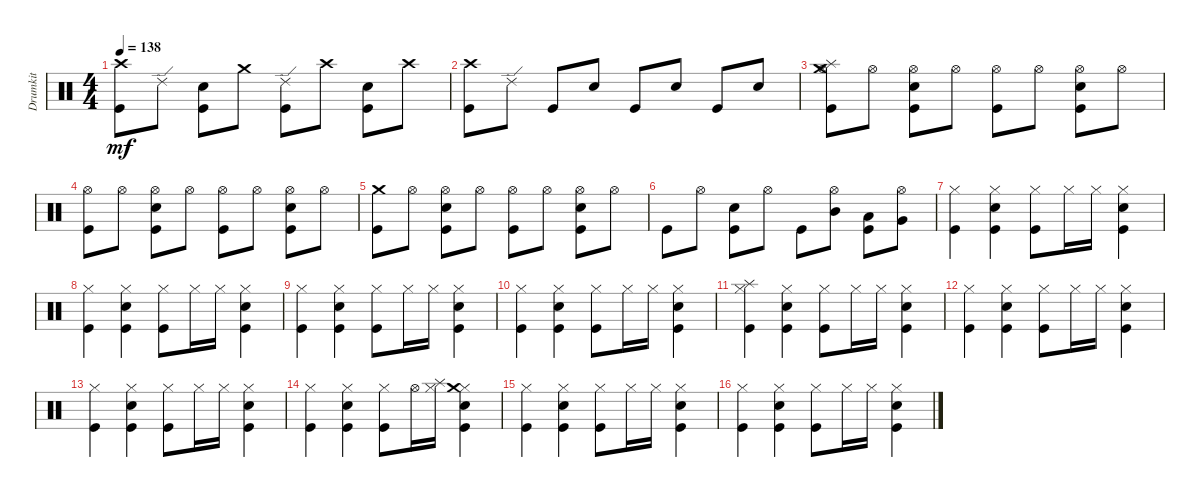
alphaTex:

\track ("Drumkit" "Drumkit") {instrument percussion}
\staff {score}
\articulation defaults
\ts (4 4)
\tempo 138
\clef neutral
\ks c
("Crash high (hit)" "Kick (hit)").8{dy mf} "Ride (edge) 2".8 ("Snare (hit) 2" "Kick (hit)").8 "Crash medium (hit)".8 ("Ride (edge) 2" "Kick (hit)").8 "Crash high (hit)".8 ("Snare (hit) 2" "Kick (hit)").8 "Crash high (hit)".8 |
("Crash high (hit)" "Kick (hit)").8 "Ride (edge) 2".8 "Kick (hit)".8 "Snare (hit) 2".8 "Kick (hit)".8 "Snare (hit) 2".8 "Kick (hit)".8 "Snare (hit) 2".8 |
("Splash (hit)" "Crash medium (hit)" "Hi-Hat (open)" "Kick (hit)").8 "Hi-Hat (open)".8 ("Snare (hit) 2" "Hi-Hat (open)" "Kick (hit)").8 "Hi-Hat (open)".8 ("Kick (hit)" "Hi-Hat (open)").8 "Hi-Hat (open)".8 ("Snare (hit) 2" "Hi-Hat (open)" "Kick (hit)").8 "Hi-Hat (open)".8 |
("Kick (hit)" "Hi-Hat (open)").8 "Hi-Hat (open)".8 ("Snare (hit) 2" "Hi-Hat (open)" "Kick (hit)").8 "Hi-Hat (open)".8 ("Kick (hit)" "Hi-Hat (open)").8 "Hi-Hat (open)".8 ("Snare (hit) 2" "Hi-Hat (open)" "Kick (hit)").8 "Hi-Hat (open)".8 |
("Kick (hit)" "Crash medium (hit)").8 "Hi-Hat (open)".8 ("Snare (hit) 2" "Hi-Hat (open)" "Kick (hit)").8 "Hi-Hat (open)".8 ("Kick (hit)" "Hi-Hat (open)").8 "Hi-Hat (open)".8 ("Snare (hit) 2" "Hi-Hat (open)" "Kick (hit)").8 "Hi-Hat (open)".8 |
"Kick (hit)".8 "Hi-Hat (open)".8 ("Snare (hit) 2" "Kick (hit)").8 "Hi-Hat (open)".8 "Kick (hit)".8 ("Hi-Hat (open)" "Mid Tom (hit)").8 ("Low Tom (hit)" "Kick (hit)").8 ("Hi-Hat (open)" "Very Low Tom (hit)").8 |
("Hi-Hat (closed)" "Kick (hit)").4 ("Hi-Hat (closed)" "Kick (hit)" "Snare (hit) 2").4 ("Hi-Hat (closed)" "Kick (hit)").8 "Hi-Hat (closed)".16 "Hi-Hat (closed)".16 ("Hi-Hat (closed)" "Kick (hit)" "Snare (hit) 2").4 |
("Hi-Hat (closed)" "Kick (hit)").4 ("Hi-Hat (closed)" "Kick (hit)" "Snare (hit) 2").4 ("Hi-Hat (closed)" "Kick (hit)").8 "Hi-Hat (closed)".16 "Hi-Hat (closed)".16 ("Hi-Hat (closed)" "Kick (hit)" "Snare (hit) 2").4 |
("Hi-Hat (closed)" "Kick (hit)").4 ("Hi-Hat (closed)" "Kick (hit)" "Snare (hit) 2").4 ("Hi-Hat (closed)" "Kick (hit)").8 "Hi-Hat (closed)".16 "Hi-Hat (closed)".16 ("Hi-Hat (closed)" "Kick (hit)" "Snare (hit) 2").4 |
("Hi-Hat (closed)" "Kick (hit)").4 ("Hi-Hat (closed)" "Kick (hit)" "Snare (hit) 2").4 ("Hi-Hat (closed)" "Kick (hit)").8 "Hi-Hat (closed)".16 "Hi-Hat (closed)".16 ("Hi-Hat (closed)" "Kick (hit)" "Snare (hit) 2").4 |
("Hi-Hat (closed)" "Kick (hit)" "Splash (hit)").4 ("Hi-Hat (closed)" "Kick (hit)" "Snare (hit) 2").4 ("Hi-Hat (closed)" "Kick (hit)").8 "Hi-Hat (closed)".16 "Hi-Hat (closed)".16 ("Hi-Hat (closed)" "Kick (hit)" "Snare (hit) 2").4 |
("Hi-Hat (closed)" "Kick (hit)").4 ("Hi-Hat (closed)" "Kick (hit)" "Snare (hit) 2").4 ("Hi-Hat (closed)" "Kick (hit)").8 "Hi-Hat (closed)".16 "Hi-Hat (closed)".16 ("Hi-Hat (closed)" "Kick (hit)" "Snare (hit) 2").4 |
("Hi-Hat (closed)" "Kick (hit)").4 ("Hi-Hat (closed)" "Kick (hit)" "Snare (hit) 2").4 ("Hi-Hat (closed)" "Kick (hit)").8 "Hi-Hat (closed)".16 "Hi-Hat (closed)".16 ("Hi-Hat (closed)" "Kick (hit)" "Snare (hit) 2").4 |
("Hi-Hat (closed)" "Kick (hit)").4 ("Hi-Hat (closed)" "Kick (hit)" "Snare (hit) 2").4 ("Hi-Hat (closed)" "Kick (hit)").8 "Hi-Hat (open)".16 ("Hi-Hat (closed)" "Splash (hit)").16 ("Hi-Hat (closed)" "Kick (hit)" "Crash medium (hit)" "Snare (hit) 2").4 |
("Hi-Hat (closed)" "Kick (hit)").4 ("Hi-Hat (closed)" "Kick (hit)" "Snare (hit) 2").4 ("Hi-Hat (closed)" "Kick (hit)").8 "Hi-Hat (closed)".16 "Hi-Hat (closed)".16 ("Hi-Hat (closed)" "Kick (hit)" "Snare (hit) 2").4 |
("Hi-Hat (closed)" "Kick (hit)").4 ("Hi-Hat (closed)" "Kick (hit)" "Snare (hit) 2").4 ("Hi-Hat (closed)" "Kick (hit)").8 "Hi-Hat (closed)".16 "Hi-Hat (closed)".16 ("Hi-Hat (closed)" "Kick (hit)" "Snare (hit) 2").4
